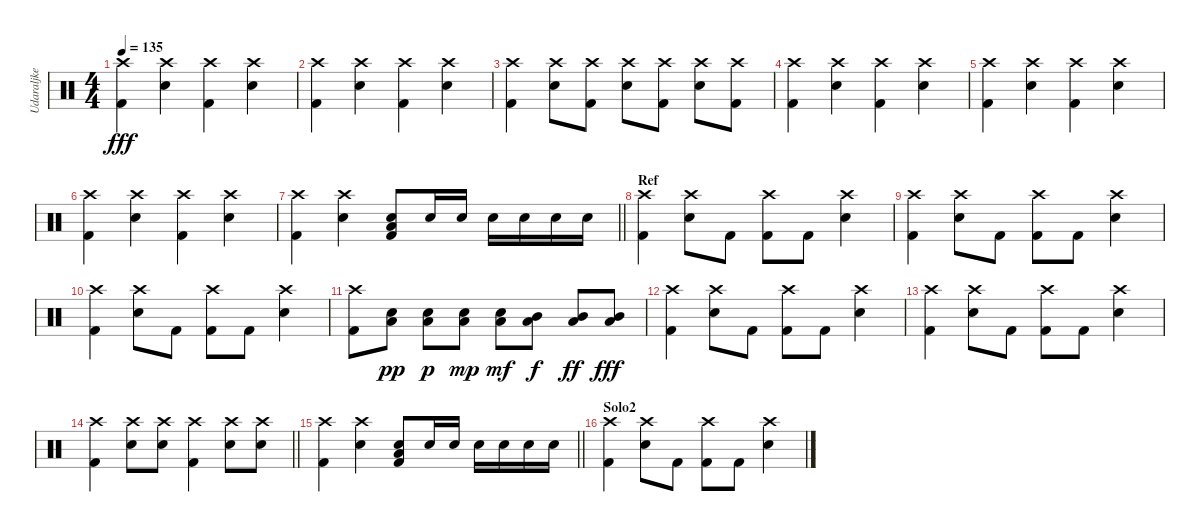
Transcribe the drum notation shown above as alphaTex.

\track ("Udaraljke" "Udaraljke") {instrument percussion}
\staff
\articulation defaults
\ts (4 4)
\tempo 135
\clef neutral
\ks c
("Crash high (hit)" "Kick (hit) 2").4{dy fff} ("Crash high (hit)" "Snare (hit) 2").4 ("Crash high (hit)" "Kick (hit) 2").4 ("Crash high (hit)" "Snare (hit) 2").4 |
("Crash high (hit)" "Kick (hit) 2").4 ("Crash high (hit)" "Snare (hit) 2").4 ("Crash high (hit)" "Kick (hit) 2").4 ("Crash high (hit)" "Snare (hit) 2").4 |
("Crash high (hit)" "Kick (hit) 2").4 ("Crash high (hit)" "Snare (hit) 2").8 ("Crash high (hit)" "Kick (hit) 2").8 ("Crash high (hit)" "Snare (hit) 2").8 ("Crash high (hit)" "Kick (hit) 2").8 ("Crash high (hit)" "Snare (hit) 2").8 ("Crash high (hit)" "Kick (hit) 2").8 |
("Crash high (hit)" "Kick (hit) 2").4 ("Crash high (hit)" "Snare (hit) 2").4 ("Crash high (hit)" "Kick (hit) 2").4 ("Crash high (hit)" "Snare (hit) 2").4 |
("Crash high (hit)" "Kick (hit) 2").4 ("Crash high (hit)" "Snare (hit) 2").4 ("Crash high (hit)" "Kick (hit) 2").4 ("Crash high (hit)" "Snare (hit) 2").4 |
("Crash high (hit)" "Kick (hit) 2").4 ("Crash high (hit)" "Snare (hit) 2").4 ("Crash high (hit)" "Kick (hit) 2").4 ("Crash high (hit)" "Snare (hit) 2").4 |
\barLineRight lightlight
("Crash high (hit)" "Kick (hit) 2").4 ("Crash high (hit)" "Snare (hit) 2").4 ("Low Tom (hit)" "Kick (hit) 2" "Snare (hit) 2").8 "Snare (hit) 2".16 "Snare (hit) 2".16 "Snare (hit) 2".16 "Snare (hit) 2".16 "Snare (hit) 2".16 "Snare (hit) 2".16 |
\section ("" "Ref")
("Crash high (hit)" "Kick (hit) 2").4{volume 11} ("Crash high (hit)" "Snare (hit) 2").8 "Kick (hit) 2".8 ("Crash high (hit)" "Kick (hit) 2").8 "Kick (hit) 2".8 ("Crash high (hit)" "Snare (hit) 2").4 |
("Crash high (hit)" "Kick (hit) 2").4 ("Crash high (hit)" "Snare (hit) 2").8 "Kick (hit) 2".8 ("Crash high (hit)" "Kick (hit) 2").8 "Kick (hit) 2".8 ("Crash high (hit)" "Snare (hit) 2").4 |
("Crash high (hit)" "Kick (hit) 2").4 ("Crash high (hit)" "Snare (hit) 2").8 "Kick (hit) 2".8 ("Crash high (hit)" "Kick (hit) 2").8 "Kick (hit) 2".8 ("Crash high (hit)" "Snare (hit) 2").4 |
("Crash high (hit)" "Kick (hit) 2").8 ("Low Tom (hit)" "Snare (hit) 2").8{dy pp} ("Low Tom (hit)" "Snare (hit) 2").8{dy p} ("Low Tom (hit)" "Snare (hit) 2").8{dy mp} ("Low Tom (hit)" "Snare (hit) 2").8{dy mf} ("Low Tom (hit)" "Mid Tom (hit)").8{dy f} ("Low Tom (hit)" "Mid Tom (hit)").8{dy ff} ("Low Tom (hit)" "Mid Tom (hit)").8{dy fff} |
("Crash high (hit)" "Kick (hit) 2").4 ("Crash high (hit)" "Snare (hit) 2").8 "Kick (hit) 2".8 ("Crash high (hit)" "Kick (hit) 2").8 "Kick (hit) 2".8 ("Crash high (hit)" "Snare (hit) 2").4 |
("Crash high (hit)" "Kick (hit) 2").4 ("Crash high (hit)" "Snare (hit) 2").8 "Kick (hit) 2".8 ("Crash high (hit)" "Kick (hit) 2").8 "Kick (hit) 2".8 ("Crash high (hit)" "Snare (hit) 2").4 |
\barLineRight lightlight
("Crash high (hit)" "Kick (hit) 2").4 ("Crash high (hit)" "Snare (hit) 2").8 ("Crash high (hit)" "Snare (hit) 2").8 ("Crash high (hit)" "Kick (hit) 2").4 ("Crash high (hit)" "Snare (hit) 2").8 ("Crash high (hit)" "Snare (hit) 2").8 |
\barLineRight lightlight
("Crash high (hit)" "Kick (hit) 2").4 ("Crash high (hit)" "Snare (hit) 2").4 ("Low Tom (hit)" "Kick (hit) 2" "Snare (hit) 2").8 "Snare (hit) 2".16 "Snare (hit) 2".16 "Snare (hit) 2".16 "Snare (hit) 2".16 "Snare (hit) 2".16 "Snare (hit) 2".16 |
\section ("" "Solo2")
("Crash high (hit)" "Kick (hit) 2").4 ("Crash high (hit)" "Snare (hit) 2").8 "Kick (hit) 2".8 ("Crash high (hit)" "Kick (hit) 2").8 "Kick (hit) 2".8 ("Crash high (hit)" "Snare (hit) 2").4
